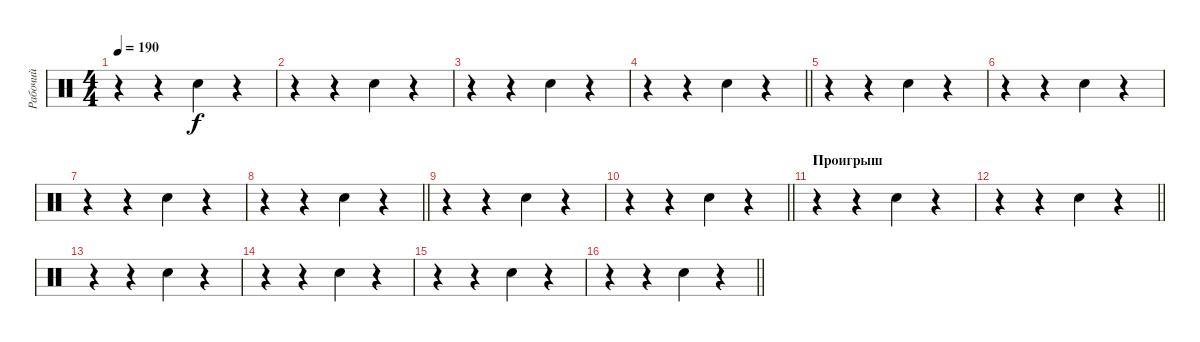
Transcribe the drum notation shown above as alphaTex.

\track ("Рабочий" "Рабочий") {instrument percussion}
\staff {score}
\articulation defaults
\ts (4 4)
\tempo 190
\clef neutral
\ks c
r.4{dy f} r.4 "Snare (hit) 2".4 r.4 |
r.4 r.4 "Snare (hit) 2".4 r.4 |
r.4 r.4 "Snare (hit) 2".4 r.4 |
\barLineRight lightlight
r.4 r.4 "Snare (hit) 2".4 r.4 |
r.4 r.4 "Snare (hit) 2".4 r.4 |
r.4 r.4 "Snare (hit) 2".4 r.4 |
r.4 r.4 "Snare (hit) 2".4 r.4 |
\barLineRight lightlight
r.4 r.4 "Snare (hit) 2".4 r.4 |
r.4 r.4 "Snare (hit) 2".4 r.4 |
\barLineRight lightlight
r.4 r.4 "Snare (hit) 2".4 r.4 |
\section ("" "Проигрыш")
r.4 r.4 "Snare (hit) 2".4 r.4 |
\barLineRight lightlight
r.4 r.4 "Snare (hit) 2".4 r.4 |
r.4 r.4 "Snare (hit) 2".4 r.4 |
r.4 r.4 "Snare (hit) 2".4 r.4 |
r.4 r.4 "Snare (hit) 2".4 r.4 |
\barLineRight lightlight
r.4 r.4 "Snare (hit) 2".4 r.4
